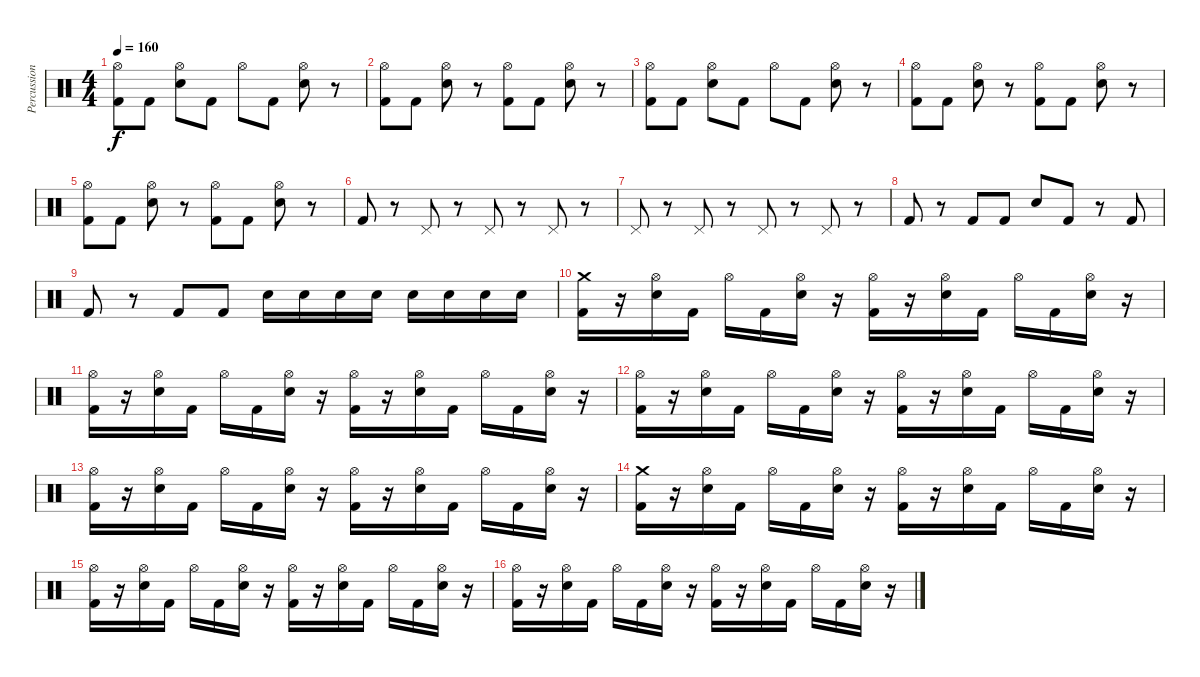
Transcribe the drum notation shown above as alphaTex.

\track ("Percussion" "Percussion") {instrument percussion}
\staff {score}
\articulation defaults
\ts (4 4)
\tempo 160
\clef neutral
\ks c
("Hi-Hat (open)" "Kick (hit) 2").8{dy f} "Kick (hit) 2".8 ("Hi-Hat (open)" "Snare (hit) 2").8 "Kick (hit) 2".8 "Hi-Hat (open)".8 "Kick (hit) 2".8 ("Hi-Hat (open)" "Snare (hit) 2").8 r.8 |
("Hi-Hat (open)" "Kick (hit) 2").8 "Kick (hit) 2".8 ("Hi-Hat (open)" "Snare (hit) 2").8 r.8 ("Hi-Hat (open)" "Kick (hit) 2").8 "Kick (hit) 2".8 ("Hi-Hat (open)" "Snare (hit) 2").8 r.8 |
("Hi-Hat (open)" "Kick (hit) 2").8 "Kick (hit) 2".8 ("Hi-Hat (open)" "Snare (hit) 2").8 "Kick (hit) 2".8 "Hi-Hat (open)".8 "Kick (hit) 2".8 ("Hi-Hat (open)" "Snare (hit) 2").8 r.8 |
("Hi-Hat (open)" "Kick (hit) 2").8 "Kick (hit) 2".8 ("Hi-Hat (open)" "Snare (hit) 2").8 r.8 ("Hi-Hat (open)" "Kick (hit) 2").8 "Kick (hit) 2".8 ("Hi-Hat (open)" "Snare (hit) 2").8 r.8 |
("Hi-Hat (open)" "Kick (hit) 2").8 "Kick (hit) 2".8 ("Hi-Hat (open)" "Snare (hit) 2").8 r.8 ("Hi-Hat (open)" "Kick (hit) 2").8 "Kick (hit) 2".8 ("Hi-Hat (open)" "Snare (hit) 2").8 r.8 |
"Kick (hit) 2".8 r.8 "Pedal Hi-Hat (hit)".8 r.8 "Pedal Hi-Hat (hit)".8 r.8 "Pedal Hi-Hat (hit)".8 r.8 |
"Pedal Hi-Hat (hit)".8 r.8 "Pedal Hi-Hat (hit)".8 r.8 "Pedal Hi-Hat (hit)".8 r.8 "Pedal Hi-Hat (hit)".8 r.8 |
"Kick (hit) 2".8 r.8 "Kick (hit) 2".8 "Kick (hit) 2".8 "Snare (hit) 2".8 "Kick (hit) 2".8 r.8 "Kick (hit) 2".8 |
"Kick (hit) 2".8 r.8 "Kick (hit) 2".8 "Kick (hit) 2".8 "Snare (hit) 2".16 "Snare (hit) 2".16 "Snare (hit) 2".16 "Snare (hit) 2".16 "Snare (hit) 2".16 "Snare (hit) 2".16 "Snare (hit) 2".16 "Snare (hit) 2".16 |
("Crash medium (hit)" "Kick (hit) 2").16 r.16 ("Hi-Hat (open)" "Snare (hit) 2").16 "Kick (hit) 2".16 "Hi-Hat (open)".16 "Kick (hit) 2".16 ("Hi-Hat (open)" "Snare (hit) 2").16 r.16 ("Hi-Hat (open)" "Kick (hit) 2").16 r.16 ("Hi-Hat (open)" "Snare (hit) 2").16 "Kick (hit) 2".16 "Hi-Hat (open)".16 "Kick (hit) 2".16 ("Hi-Hat (open)" "Snare (hit) 2").16 r.16 |
("Hi-Hat (open)" "Kick (hit) 2").16 r.16 ("Hi-Hat (open)" "Snare (hit) 2").16 "Kick (hit) 2".16 "Hi-Hat (open)".16 "Kick (hit) 2".16 ("Hi-Hat (open)" "Snare (hit) 2").16 r.16 ("Hi-Hat (open)" "Kick (hit) 2").16 r.16 ("Hi-Hat (open)" "Snare (hit) 2").16 "Kick (hit) 2".16 "Hi-Hat (open)".16 "Kick (hit) 2".16 ("Hi-Hat (open)" "Snare (hit) 2").16 r.16 |
("Hi-Hat (open)" "Kick (hit) 2").16 r.16 ("Hi-Hat (open)" "Snare (hit) 2").16 "Kick (hit) 2".16 "Hi-Hat (open)".16 "Kick (hit) 2".16 ("Hi-Hat (open)" "Snare (hit) 2").16 r.16 ("Hi-Hat (open)" "Kick (hit) 2").16 r.16 ("Hi-Hat (open)" "Snare (hit) 2").16 "Kick (hit) 2".16 "Hi-Hat (open)".16 "Kick (hit) 2".16 ("Hi-Hat (open)" "Snare (hit) 2").16 r.16 |
("Hi-Hat (open)" "Kick (hit) 2").16 r.16 ("Hi-Hat (open)" "Snare (hit) 2").16 "Kick (hit) 2".16 "Hi-Hat (open)".16 "Kick (hit) 2".16 ("Hi-Hat (open)" "Snare (hit) 2").16 r.16 ("Hi-Hat (open)" "Kick (hit) 2").16 r.16 ("Hi-Hat (open)" "Snare (hit) 2").16 "Kick (hit) 2".16 "Hi-Hat (open)".16 "Kick (hit) 2".16 ("Hi-Hat (open)" "Snare (hit) 2").16 r.16 |
("Crash medium (hit)" "Kick (hit) 2").16 r.16 ("Hi-Hat (open)" "Snare (hit) 2").16 "Kick (hit) 2".16 "Hi-Hat (open)".16 "Kick (hit) 2".16 ("Hi-Hat (open)" "Snare (hit) 2").16 r.16 ("Hi-Hat (open)" "Kick (hit) 2").16 r.16 ("Hi-Hat (open)" "Snare (hit) 2").16 "Kick (hit) 2".16 "Hi-Hat (open)".16 "Kick (hit) 2".16 ("Hi-Hat (open)" "Snare (hit) 2").16 r.16 |
("Hi-Hat (open)" "Kick (hit) 2").16 r.16 ("Hi-Hat (open)" "Snare (hit) 2").16 "Kick (hit) 2".16 "Hi-Hat (open)".16 "Kick (hit) 2".16 ("Hi-Hat (open)" "Snare (hit) 2").16 r.16 ("Hi-Hat (open)" "Kick (hit) 2").16 r.16 ("Hi-Hat (open)" "Snare (hit) 2").16 "Kick (hit) 2".16 "Hi-Hat (open)".16 "Kick (hit) 2".16 ("Hi-Hat (open)" "Snare (hit) 2").16 r.16 |
("Hi-Hat (open)" "Kick (hit) 2").16 r.16 ("Hi-Hat (open)" "Snare (hit) 2").16 "Kick (hit) 2".16 "Hi-Hat (open)".16 "Kick (hit) 2".16 ("Hi-Hat (open)" "Snare (hit) 2").16 r.16 ("Hi-Hat (open)" "Kick (hit) 2").16 r.16 ("Hi-Hat (open)" "Snare (hit) 2").16 "Kick (hit) 2".16 "Hi-Hat (open)".16 "Kick (hit) 2".16 ("Hi-Hat (open)" "Snare (hit) 2").16 r.16
